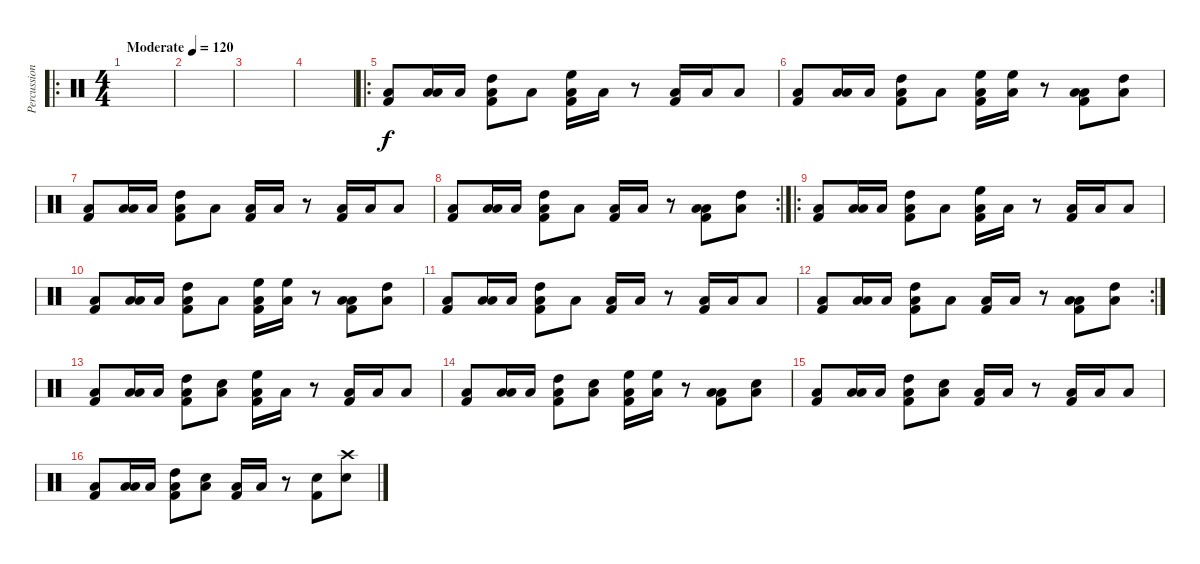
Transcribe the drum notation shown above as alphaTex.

\track ("Percussion" "Percussion") {instrument percussion}
\staff {score}
\articulation defaults
\ro
\ts (4 4)
\tempo (120 "Moderate")
\clef neutral
\ks c
|
|
|
|
\ro
("Low Floor Tom (hit)" "Kick (hit) 2").8 ("Low Floor Tom (hit)" "Low Tom (hit)").16 "Low Floor Tom (hit)".16 ("Low Floor Tom (hit)" "High Tom (hit)" "Kick (hit) 2").8 "Low Floor Tom (hit)".8 ("Low Floor Tom (hit)" "High Floor Tom (hit)" "Kick (hit) 2").16 "Low Floor Tom (hit)".16 r.8 ("Low Floor Tom (hit)" "Kick (hit) 2").16 "Low Floor Tom (hit)".16 "Low Floor Tom (hit)".8 |
("Low Floor Tom (hit)" "Kick (hit) 2").8 ("Low Floor Tom (hit)" "Low Tom (hit)").16 "Low Floor Tom (hit)".16 ("Low Floor Tom (hit)" "High Tom (hit)" "Kick (hit) 2").8 "Low Floor Tom (hit)".8 ("Low Floor Tom (hit)" "High Floor Tom (hit)" "Kick (hit) 2").16 ("Low Floor Tom (hit)" "High Floor Tom (hit)").16 r.8 ("Low Floor Tom (hit)" "Low Tom (hit)" "Kick (hit) 2").8 ("Low Floor Tom (hit)" "High Tom (hit)").8 |
("Low Floor Tom (hit)" "Kick (hit) 2").8 ("Low Floor Tom (hit)" "Low Tom (hit)").16 "Low Floor Tom (hit)".16 ("Low Floor Tom (hit)" "High Tom (hit)" "Kick (hit) 2").8 "Low Floor Tom (hit)".8 ("Low Floor Tom (hit)" "Kick (hit) 2").16 "Low Floor Tom (hit)".16 r.8 ("Low Floor Tom (hit)" "Kick (hit) 2").16 "Low Floor Tom (hit)".16 "Low Floor Tom (hit)".8 |
\rc 2
("Low Floor Tom (hit)" "Kick (hit) 2").8 ("Low Floor Tom (hit)" "Low Tom (hit)").16 "Low Floor Tom (hit)".16 ("Low Floor Tom (hit)" "High Tom (hit)" "Kick (hit) 2").8 "Low Floor Tom (hit)".8 ("Low Floor Tom (hit)" "Kick (hit) 2").16 "Low Floor Tom (hit)".16 r.8 ("Low Floor Tom (hit)" "Low Tom (hit)" "Kick (hit) 2").8 ("Low Floor Tom (hit)" "High Tom (hit)").8 |
\ro
("Low Floor Tom (hit)" "Kick (hit) 2").8 ("Low Floor Tom (hit)" "Low Tom (hit)").16 "Low Floor Tom (hit)".16 ("Low Floor Tom (hit)" "High Tom (hit)" "Kick (hit) 2").8 "Low Floor Tom (hit)".8 ("Low Floor Tom (hit)" "High Floor Tom (hit)" "Kick (hit) 2").16 "Low Floor Tom (hit)".16 r.8 ("Low Floor Tom (hit)" "Kick (hit) 2").16 "Low Floor Tom (hit)".16 "Low Floor Tom (hit)".8 |
("Low Floor Tom (hit)" "Kick (hit) 2").8 ("Low Floor Tom (hit)" "Low Tom (hit)").16 "Low Floor Tom (hit)".16 ("Low Floor Tom (hit)" "High Tom (hit)" "Kick (hit) 2").8 "Low Floor Tom (hit)".8 ("Low Floor Tom (hit)" "High Floor Tom (hit)" "Kick (hit) 2").16 ("Low Floor Tom (hit)" "High Floor Tom (hit)").16 r.8 ("Low Floor Tom (hit)" "Low Tom (hit)" "Kick (hit) 2").8 ("Low Floor Tom (hit)" "High Tom (hit)").8 |
("Low Floor Tom (hit)" "Kick (hit) 2").8 ("Low Floor Tom (hit)" "Low Tom (hit)").16 "Low Floor Tom (hit)".16 ("Low Floor Tom (hit)" "High Tom (hit)" "Kick (hit) 2").8 "Low Floor Tom (hit)".8 ("Low Floor Tom (hit)" "Kick (hit) 2").16 "Low Floor Tom (hit)".16 r.8 ("Low Floor Tom (hit)" "Kick (hit) 2").16 "Low Floor Tom (hit)".16 "Low Floor Tom (hit)".8 |
\rc 2
("Low Floor Tom (hit)" "Kick (hit) 2").8 ("Low Floor Tom (hit)" "Low Tom (hit)").16 "Low Floor Tom (hit)".16 ("Low Floor Tom (hit)" "High Tom (hit)" "Kick (hit) 2").8 "Low Floor Tom (hit)".8 ("Low Floor Tom (hit)" "Kick (hit) 2").16 "Low Floor Tom (hit)".16 r.8 ("Low Floor Tom (hit)" "Low Tom (hit)" "Kick (hit) 2").8 ("Low Floor Tom (hit)" "High Tom (hit)").8 |
("Low Floor Tom (hit)" "Kick (hit) 2").8 ("Low Floor Tom (hit)" "Low Tom (hit)").16 "Low Floor Tom (hit)".16 ("Low Floor Tom (hit)" "High Tom (hit)" "Kick (hit) 2").8 ("Low Floor Tom (hit)" "Snare (hit) 2").8 ("Low Floor Tom (hit)" "High Floor Tom (hit)" "Kick (hit) 2").16 "Low Floor Tom (hit)".16 r.8 ("Low Floor Tom (hit)" "Kick (hit) 2").16 "Low Floor Tom (hit)".16 "Low Floor Tom (hit)".8 |
("Low Floor Tom (hit)" "Kick (hit) 2").8 ("Low Floor Tom (hit)" "Low Tom (hit)").16 "Low Floor Tom (hit)".16 ("Low Floor Tom (hit)" "High Tom (hit)" "Kick (hit) 2").8 ("Low Floor Tom (hit)" "Snare (hit) 2").8 ("Low Floor Tom (hit)" "High Floor Tom (hit)" "Kick (hit) 2").16 ("Low Floor Tom (hit)" "High Floor Tom (hit)").16 r.8 ("Low Floor Tom (hit)" "Low Tom (hit)" "Kick (hit) 2").8 ("Low Floor Tom (hit)" "Snare (hit) 2").8 |
("Low Floor Tom (hit)" "Kick (hit) 2").8 ("Low Floor Tom (hit)" "Low Tom (hit)").16 "Low Floor Tom (hit)".16 ("Low Floor Tom (hit)" "High Tom (hit)" "Kick (hit) 2").8 ("Low Floor Tom (hit)" "Snare (hit) 2").8 ("Low Floor Tom (hit)" "Kick (hit) 2").16 "Low Floor Tom (hit)".16 r.8 ("Low Floor Tom (hit)" "Kick (hit) 2").16 "Low Floor Tom (hit)".16 "Low Floor Tom (hit)".8 |
("Low Floor Tom (hit)" "Kick (hit) 2").8 ("Low Floor Tom (hit)" "Low Tom (hit)").16 "Low Floor Tom (hit)".16 ("Low Floor Tom (hit)" "High Tom (hit)" "Kick (hit) 2").8 ("Low Floor Tom (hit)" "Snare (hit) 2").8 ("Low Floor Tom (hit)" "Kick (hit) 2").16 "Low Floor Tom (hit)".16 r.8 ("Snare (hit) 2" "Kick (hit) 2").8 ("Crash high (hit)" "Snare (hit) 2").8
